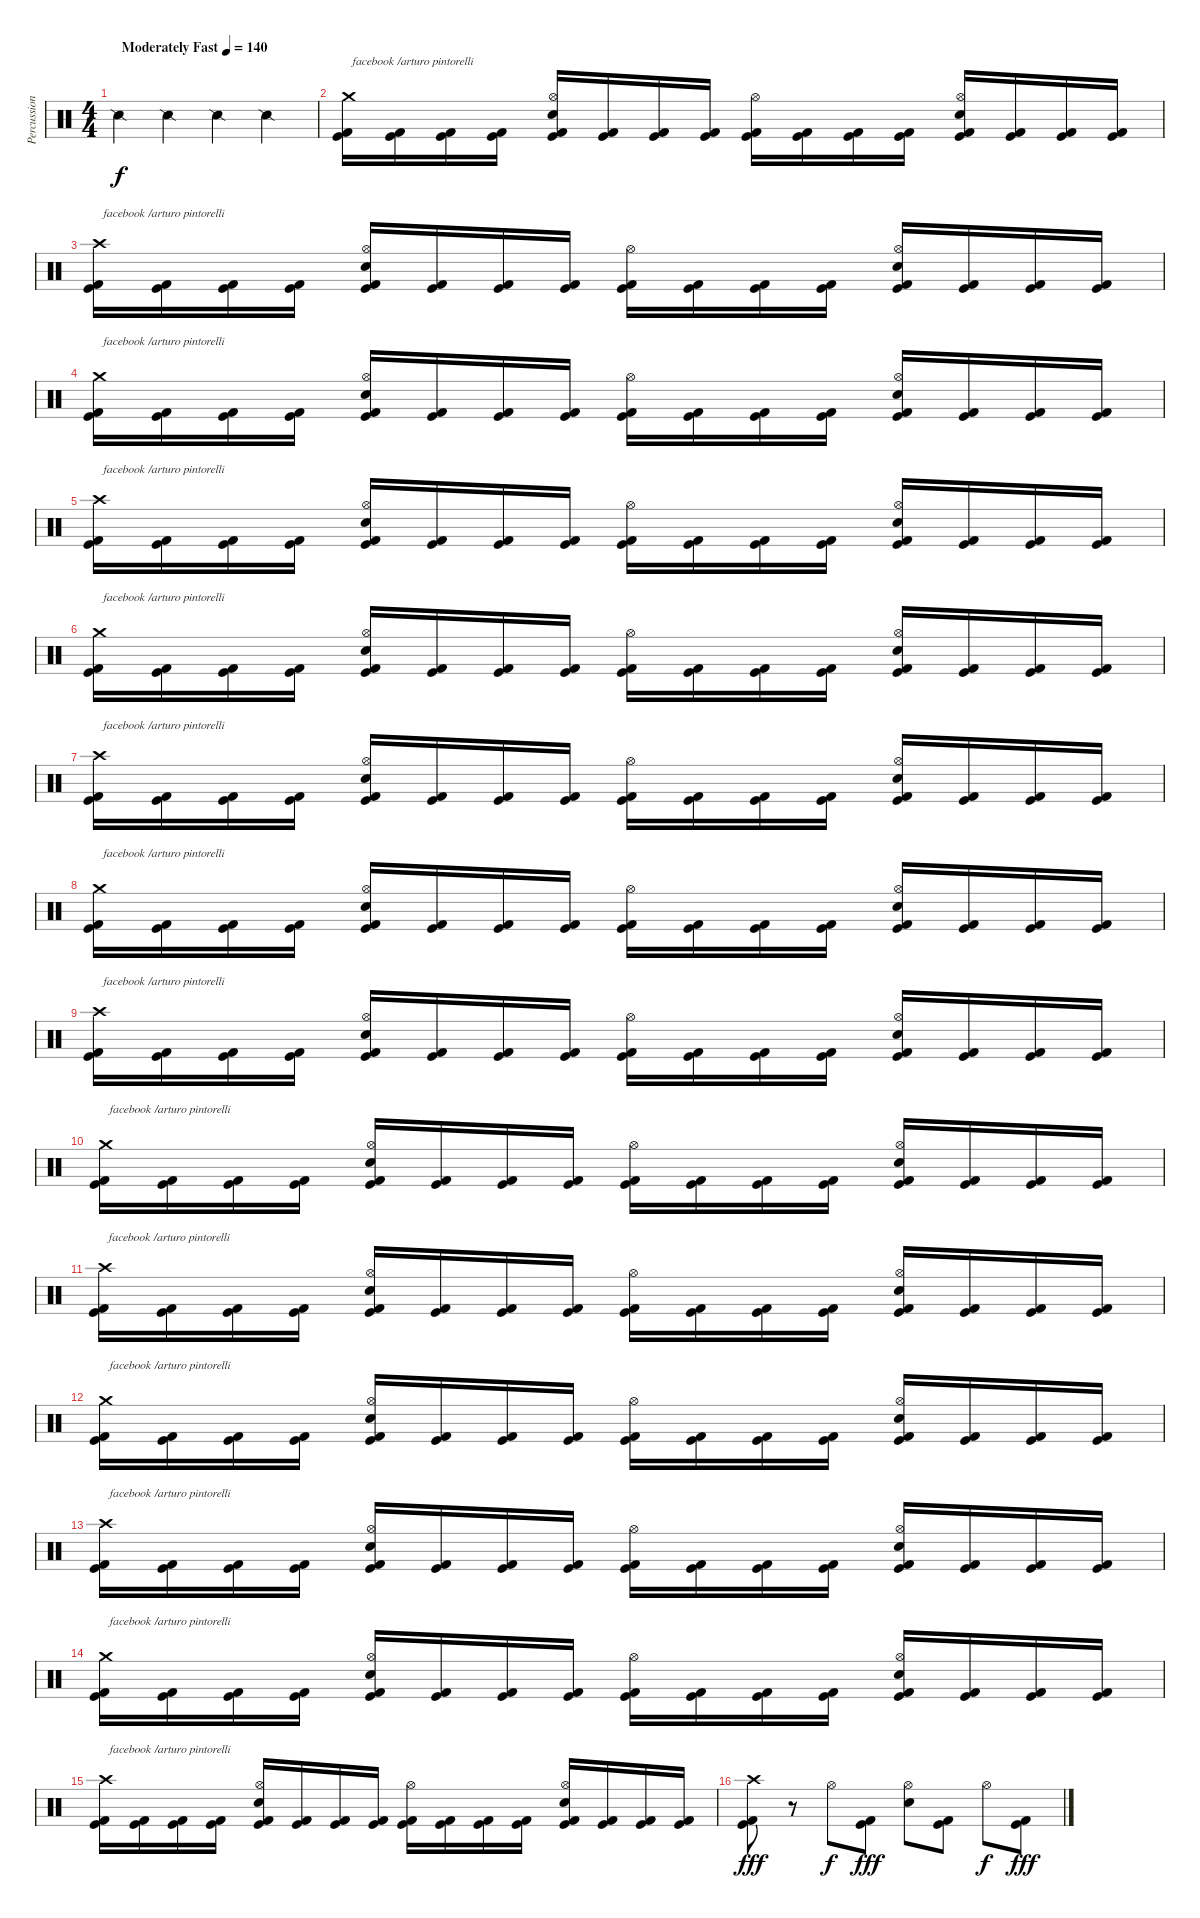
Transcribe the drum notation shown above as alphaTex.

\track ("Percussion" "Percussion") {instrument percussion}
\staff {score}
\articulation defaults
\ts (4 4)
\tempo (140 "Moderately Fast")
\clef neutral
\ks c "Snare (side stick) 2".4{dy f} "Snare (side stick) 2".4 "Snare (side stick) 2".4 "Snare (side stick) 2".4
|
("Crash medium (hit)" "Kick (hit)" "Kick (hit) 2").16{txt " facebook /arturo pintorelli"} ("Kick (hit)" "Kick (hit) 2").16 ("Kick (hit)" "Kick (hit) 2").16 ("Kick (hit)" "Kick (hit) 2").16 ("Hi-Hat (open)" "Electric Snare (hit)" "Kick (hit)" "Kick (hit) 2").16 ("Kick (hit)" "Kick (hit) 2").16 ("Kick (hit)" "Kick (hit) 2").16 ("Kick (hit)" "Kick (hit) 2").16 ("Hi-Hat (open)" "Kick (hit)" "Kick (hit) 2").16 ("Kick (hit)" "Kick (hit) 2").16 ("Kick (hit)" "Kick (hit) 2").16 ("Kick (hit)" "Kick (hit) 2").16 ("Hi-Hat (open)" "Electric Snare (hit)" "Kick (hit)" "Kick (hit) 2").16 ("Kick (hit)" "Kick (hit) 2").16 ("Kick (hit)" "Kick (hit) 2").16 ("Kick (hit)" "Kick (hit) 2").16 |
("Crash high (hit)" "Kick (hit)" "Kick (hit) 2").16{txt " facebook /arturo pintorelli"} ("Kick (hit)" "Kick (hit) 2").16 ("Kick (hit)" "Kick (hit) 2").16 ("Kick (hit)" "Kick (hit) 2").16 ("Hi-Hat (open)" "Electric Snare (hit)" "Kick (hit)" "Kick (hit) 2").16 ("Kick (hit)" "Kick (hit) 2").16 ("Kick (hit)" "Kick (hit) 2").16 ("Kick (hit)" "Kick (hit) 2").16 ("Hi-Hat (open)" "Kick (hit)" "Kick (hit) 2").16 ("Kick (hit)" "Kick (hit) 2").16 ("Kick (hit)" "Kick (hit) 2").16 ("Kick (hit)" "Kick (hit) 2").16 ("Hi-Hat (open)" "Electric Snare (hit)" "Kick (hit)" "Kick (hit) 2").16 ("Kick (hit)" "Kick (hit) 2").16 ("Kick (hit)" "Kick (hit) 2").16 ("Kick (hit)" "Kick (hit) 2").16 |
("Crash medium (hit)" "Kick (hit)" "Kick (hit) 2").16{txt " facebook /arturo pintorelli"} ("Kick (hit)" "Kick (hit) 2").16 ("Kick (hit)" "Kick (hit) 2").16 ("Kick (hit)" "Kick (hit) 2").16 ("Hi-Hat (open)" "Electric Snare (hit)" "Kick (hit)" "Kick (hit) 2").16 ("Kick (hit)" "Kick (hit) 2").16 ("Kick (hit)" "Kick (hit) 2").16 ("Kick (hit)" "Kick (hit) 2").16 ("Hi-Hat (open)" "Kick (hit)" "Kick (hit) 2").16 ("Kick (hit)" "Kick (hit) 2").16 ("Kick (hit)" "Kick (hit) 2").16 ("Kick (hit)" "Kick (hit) 2").16 ("Hi-Hat (open)" "Electric Snare (hit)" "Kick (hit)" "Kick (hit) 2").16 ("Kick (hit)" "Kick (hit) 2").16 ("Kick (hit)" "Kick (hit) 2").16 ("Kick (hit)" "Kick (hit) 2").16 |
("Crash high (hit)" "Kick (hit)" "Kick (hit) 2").16{txt " facebook /arturo pintorelli"} ("Kick (hit)" "Kick (hit) 2").16 ("Kick (hit)" "Kick (hit) 2").16 ("Kick (hit)" "Kick (hit) 2").16 ("Hi-Hat (open)" "Electric Snare (hit)" "Kick (hit)" "Kick (hit) 2").16 ("Kick (hit)" "Kick (hit) 2").16 ("Kick (hit)" "Kick (hit) 2").16 ("Kick (hit)" "Kick (hit) 2").16 ("Hi-Hat (open)" "Kick (hit)" "Kick (hit) 2").16 ("Kick (hit)" "Kick (hit) 2").16 ("Kick (hit)" "Kick (hit) 2").16 ("Kick (hit)" "Kick (hit) 2").16 ("Hi-Hat (open)" "Electric Snare (hit)" "Kick (hit)" "Kick (hit) 2").16 ("Kick (hit)" "Kick (hit) 2").16 ("Kick (hit)" "Kick (hit) 2").16 ("Kick (hit)" "Kick (hit) 2").16 |
("Crash medium (hit)" "Kick (hit)" "Kick (hit) 2").16{txt " facebook /arturo pintorelli"} ("Kick (hit)" "Kick (hit) 2").16 ("Kick (hit)" "Kick (hit) 2").16 ("Kick (hit)" "Kick (hit) 2").16 ("Hi-Hat (open)" "Electric Snare (hit)" "Kick (hit)" "Kick (hit) 2").16 ("Kick (hit)" "Kick (hit) 2").16 ("Kick (hit)" "Kick (hit) 2").16 ("Kick (hit)" "Kick (hit) 2").16 ("Hi-Hat (open)" "Kick (hit)" "Kick (hit) 2").16 ("Kick (hit)" "Kick (hit) 2").16 ("Kick (hit)" "Kick (hit) 2").16 ("Kick (hit)" "Kick (hit) 2").16 ("Hi-Hat (open)" "Electric Snare (hit)" "Kick (hit)" "Kick (hit) 2").16 ("Kick (hit)" "Kick (hit) 2").16 ("Kick (hit)" "Kick (hit) 2").16 ("Kick (hit)" "Kick (hit) 2").16 |
("Crash high (hit)" "Kick (hit)" "Kick (hit) 2").16{txt " facebook /arturo pintorelli"} ("Kick (hit)" "Kick (hit) 2").16 ("Kick (hit)" "Kick (hit) 2").16 ("Kick (hit)" "Kick (hit) 2").16 ("Hi-Hat (open)" "Electric Snare (hit)" "Kick (hit)" "Kick (hit) 2").16 ("Kick (hit)" "Kick (hit) 2").16 ("Kick (hit)" "Kick (hit) 2").16 ("Kick (hit)" "Kick (hit) 2").16 ("Hi-Hat (open)" "Kick (hit)" "Kick (hit) 2").16 ("Kick (hit)" "Kick (hit) 2").16 ("Kick (hit)" "Kick (hit) 2").16 ("Kick (hit)" "Kick (hit) 2").16 ("Hi-Hat (open)" "Electric Snare (hit)" "Kick (hit)" "Kick (hit) 2").16 ("Kick (hit)" "Kick (hit) 2").16 ("Kick (hit)" "Kick (hit) 2").16 ("Kick (hit)" "Kick (hit) 2").16 |
("Crash medium (hit)" "Kick (hit)" "Kick (hit) 2").16{txt " facebook /arturo pintorelli"} ("Kick (hit)" "Kick (hit) 2").16 ("Kick (hit)" "Kick (hit) 2").16 ("Kick (hit)" "Kick (hit) 2").16 ("Hi-Hat (open)" "Electric Snare (hit)" "Kick (hit)" "Kick (hit) 2").16 ("Kick (hit)" "Kick (hit) 2").16 ("Kick (hit)" "Kick (hit) 2").16 ("Kick (hit)" "Kick (hit) 2").16 ("Hi-Hat (open)" "Kick (hit)" "Kick (hit) 2").16 ("Kick (hit)" "Kick (hit) 2").16 ("Kick (hit)" "Kick (hit) 2").16 ("Kick (hit)" "Kick (hit) 2").16 ("Hi-Hat (open)" "Electric Snare (hit)" "Kick (hit)" "Kick (hit) 2").16 ("Kick (hit)" "Kick (hit) 2").16 ("Kick (hit)" "Kick (hit) 2").16 ("Kick (hit)" "Kick (hit) 2").16 |
("Crash high (hit)" "Kick (hit)" "Kick (hit) 2").16{txt " facebook /arturo pintorelli"} ("Kick (hit)" "Kick (hit) 2").16 ("Kick (hit)" "Kick (hit) 2").16 ("Kick (hit)" "Kick (hit) 2").16 ("Hi-Hat (open)" "Electric Snare (hit)" "Kick (hit)" "Kick (hit) 2").16 ("Kick (hit)" "Kick (hit) 2").16 ("Kick (hit)" "Kick (hit) 2").16 ("Kick (hit)" "Kick (hit) 2").16 ("Hi-Hat (open)" "Kick (hit)" "Kick (hit) 2").16 ("Kick (hit)" "Kick (hit) 2").16 ("Kick (hit)" "Kick (hit) 2").16 ("Kick (hit)" "Kick (hit) 2").16 ("Hi-Hat (open)" "Electric Snare (hit)" "Kick (hit)" "Kick (hit) 2").16 ("Kick (hit)" "Kick (hit) 2").16 ("Kick (hit)" "Kick (hit) 2").16 ("Kick (hit)" "Kick (hit) 2").16 |
("Crash medium (hit)" "Kick (hit)" "Kick (hit) 2").16{txt " facebook /arturo pintorelli"} ("Kick (hit)" "Kick (hit) 2").16 ("Kick (hit)" "Kick (hit) 2").16 ("Kick (hit)" "Kick (hit) 2").16 ("Hi-Hat (open)" "Electric Snare (hit)" "Kick (hit)" "Kick (hit) 2").16 ("Kick (hit)" "Kick (hit) 2").16 ("Kick (hit)" "Kick (hit) 2").16 ("Kick (hit)" "Kick (hit) 2").16 ("Hi-Hat (open)" "Kick (hit)" "Kick (hit) 2").16 ("Kick (hit)" "Kick (hit) 2").16 ("Kick (hit)" "Kick (hit) 2").16 ("Kick (hit)" "Kick (hit) 2").16 ("Hi-Hat (open)" "Electric Snare (hit)" "Kick (hit)" "Kick (hit) 2").16 ("Kick (hit)" "Kick (hit) 2").16 ("Kick (hit)" "Kick (hit) 2").16 ("Kick (hit)" "Kick (hit) 2").16 |
("Crash high (hit)" "Kick (hit)" "Kick (hit) 2").16{txt " facebook /arturo pintorelli"} ("Kick (hit)" "Kick (hit) 2").16 ("Kick (hit)" "Kick (hit) 2").16 ("Kick (hit)" "Kick (hit) 2").16 ("Hi-Hat (open)" "Electric Snare (hit)" "Kick (hit)" "Kick (hit) 2").16 ("Kick (hit)" "Kick (hit) 2").16 ("Kick (hit)" "Kick (hit) 2").16 ("Kick (hit)" "Kick (hit) 2").16 ("Hi-Hat (open)" "Kick (hit)" "Kick (hit) 2").16 ("Kick (hit)" "Kick (hit) 2").16 ("Kick (hit)" "Kick (hit) 2").16 ("Kick (hit)" "Kick (hit) 2").16 ("Hi-Hat (open)" "Electric Snare (hit)" "Kick (hit)" "Kick (hit) 2").16 ("Kick (hit)" "Kick (hit) 2").16 ("Kick (hit)" "Kick (hit) 2").16 ("Kick (hit)" "Kick (hit) 2").16 |
("Crash medium (hit)" "Kick (hit)" "Kick (hit) 2").16{txt " facebook /arturo pintorelli"} ("Kick (hit)" "Kick (hit) 2").16 ("Kick (hit)" "Kick (hit) 2").16 ("Kick (hit)" "Kick (hit) 2").16 ("Hi-Hat (open)" "Electric Snare (hit)" "Kick (hit)" "Kick (hit) 2").16 ("Kick (hit)" "Kick (hit) 2").16 ("Kick (hit)" "Kick (hit) 2").16 ("Kick (hit)" "Kick (hit) 2").16 ("Hi-Hat (open)" "Kick (hit)" "Kick (hit) 2").16 ("Kick (hit)" "Kick (hit) 2").16 ("Kick (hit)" "Kick (hit) 2").16 ("Kick (hit)" "Kick (hit) 2").16 ("Hi-Hat (open)" "Electric Snare (hit)" "Kick (hit)" "Kick (hit) 2").16 ("Kick (hit)" "Kick (hit) 2").16 ("Kick (hit)" "Kick (hit) 2").16 ("Kick (hit)" "Kick (hit) 2").16 |
("Crash high (hit)" "Kick (hit)" "Kick (hit) 2").16{txt " facebook /arturo pintorelli"} ("Kick (hit)" "Kick (hit) 2").16 ("Kick (hit)" "Kick (hit) 2").16 ("Kick (hit)" "Kick (hit) 2").16 ("Hi-Hat (open)" "Electric Snare (hit)" "Kick (hit)" "Kick (hit) 2").16 ("Kick (hit)" "Kick (hit) 2").16 ("Kick (hit)" "Kick (hit) 2").16 ("Kick (hit)" "Kick (hit) 2").16 ("Hi-Hat (open)" "Kick (hit)" "Kick (hit) 2").16 ("Kick (hit)" "Kick (hit) 2").16 ("Kick (hit)" "Kick (hit) 2").16 ("Kick (hit)" "Kick (hit) 2").16 ("Hi-Hat (open)" "Electric Snare (hit)" "Kick (hit)" "Kick (hit) 2").16 ("Kick (hit)" "Kick (hit) 2").16 ("Kick (hit)" "Kick (hit) 2").16 ("Kick (hit)" "Kick (hit) 2").16 |
("Crash medium (hit)" "Kick (hit)" "Kick (hit) 2").16{txt " facebook /arturo pintorelli"} ("Kick (hit)" "Kick (hit) 2").16 ("Kick (hit)" "Kick (hit) 2").16 ("Kick (hit)" "Kick (hit) 2").16 ("Hi-Hat (open)" "Electric Snare (hit)" "Kick (hit)" "Kick (hit) 2").16 ("Kick (hit)" "Kick (hit) 2").16 ("Kick (hit)" "Kick (hit) 2").16 ("Kick (hit)" "Kick (hit) 2").16 ("Hi-Hat (open)" "Kick (hit)" "Kick (hit) 2").16 ("Kick (hit)" "Kick (hit) 2").16 ("Kick (hit)" "Kick (hit) 2").16 ("Kick (hit)" "Kick (hit) 2").16 ("Hi-Hat (open)" "Electric Snare (hit)" "Kick (hit)" "Kick (hit) 2").16 ("Kick (hit)" "Kick (hit) 2").16 ("Kick (hit)" "Kick (hit) 2").16 ("Kick (hit)" "Kick (hit) 2").16 |
("Crash high (hit)" "Kick (hit)" "Kick (hit) 2").16{txt " facebook /arturo pintorelli"} ("Kick (hit)" "Kick (hit) 2").16 ("Kick (hit)" "Kick (hit) 2").16 ("Kick (hit)" "Kick (hit) 2").16 ("Hi-Hat (open)" "Electric Snare (hit)" "Kick (hit)" "Kick (hit) 2").16 ("Kick (hit)" "Kick (hit) 2").16 ("Kick (hit)" "Kick (hit) 2").16 ("Kick (hit)" "Kick (hit) 2").16 ("Hi-Hat (open)" "Kick (hit)" "Kick (hit) 2").16 ("Kick (hit)" "Kick (hit) 2").16 ("Kick (hit)" "Kick (hit) 2").16 ("Kick (hit)" "Kick (hit) 2").16 ("Hi-Hat (open)" "Electric Snare (hit)" "Kick (hit)" "Kick (hit) 2").16 ("Kick (hit)" "Kick (hit) 2").16 ("Kick (hit)" "Kick (hit) 2").16 ("Kick (hit)" "Kick (hit) 2").16 |
("Crash high (hit)" "Kick (hit)" "Kick (hit) 2").8{dy fff} r.8 "Hi-Hat (open)".8{dy f} ("Kick (hit)" "Kick (hit) 2").8{dy fff} ("Hi-Hat (open)" "Electric Snare (hit)").8 ("Kick (hit)" "Kick (hit) 2").8 "Hi-Hat (open)".8{dy f} ("Kick (hit)" "Kick (hit) 2").8{dy fff}
